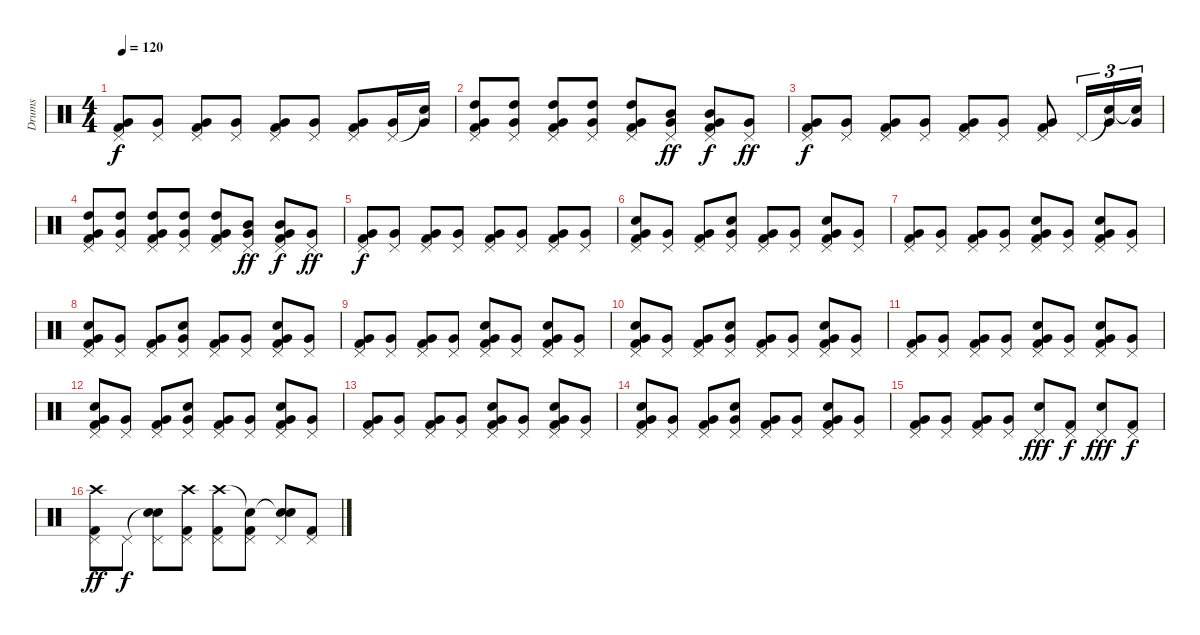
\track ("Drums" "Drums") {instrument percussion}
\staff {score}
\articulation defaults
\ts (4 4)
\tempo 120
\clef neutral
\ks c
("Pedal Hi-Hat (hit)" "Very Low Tom (hit)" "Kick (hit) 2").8{dy f} ("Pedal Hi-Hat (hit)" "Very Low Tom (hit)").8 ("Pedal Hi-Hat (hit)" "Very Low Tom (hit)" "Kick (hit) 2").8 ("Pedal Hi-Hat (hit)" "Very Low Tom (hit)").8 ("Pedal Hi-Hat (hit)" "Very Low Tom (hit)" "Kick (hit) 2").8 ("Pedal Hi-Hat (hit)" "Very Low Tom (hit)").8 ("Pedal Hi-Hat (hit)" "Very Low Tom (hit)" "Kick (hit) 2").8 ("Pedal Hi-Hat (hit)" "Very Low Tom (hit)").16 ("Snare (hit)"{t} "Very Low Tom (hit)").16 |
("Pedal Hi-Hat (hit)" "High Tom (hit)" "Very Low Tom (hit)" "Kick (hit) 2").8 ("Pedal Hi-Hat (hit)" "High Tom (hit)" "Very Low Tom (hit)").8 ("Pedal Hi-Hat (hit)" "High Tom (hit)" "Very Low Tom (hit)" "Kick (hit) 2").8 ("Pedal Hi-Hat (hit)" "High Tom (hit)" "Very Low Tom (hit)").8 ("Pedal Hi-Hat (hit)" "High Tom (hit)" "Very Low Tom (hit)" "Kick (hit) 2").8 ("Pedal Hi-Hat (hit)" "Mid Tom (hit)" "Very Low Tom (hit)").8{dy ff} ("Pedal Hi-Hat (hit)" "Mid Tom (hit)" "Very Low Tom (hit)" "Kick (hit) 2").8{dy f} ("Pedal Hi-Hat (hit)" "Very Low Tom (hit)").8{dy ff} |
("Pedal Hi-Hat (hit)" "Very Low Tom (hit)" "Kick (hit) 2").8{dy f} ("Pedal Hi-Hat (hit)" "Very Low Tom (hit)").8 ("Pedal Hi-Hat (hit)" "Very Low Tom (hit)" "Kick (hit) 2").8 ("Pedal Hi-Hat (hit)" "Very Low Tom (hit)").8 ("Pedal Hi-Hat (hit)" "Very Low Tom (hit)" "Kick (hit) 2").8 ("Pedal Hi-Hat (hit)" "Very Low Tom (hit)").8 ("Pedal Hi-Hat (hit)" "Very Low Tom (hit)" "Kick (hit) 2").8 "Pedal Hi-Hat (hit)".16{tu (3 2)} ("Snare (hit)"{t} "Very Low Tom (hit)").16{tu (3 2)} ("Snare (hit)"{t} "Very Low Tom (hit)").16{tu (3 2)} |
("Pedal Hi-Hat (hit)" "High Tom (hit)" "Very Low Tom (hit)" "Kick (hit) 2").8 ("Pedal Hi-Hat (hit)" "High Tom (hit)" "Very Low Tom (hit)").8 ("Pedal Hi-Hat (hit)" "High Tom (hit)" "Very Low Tom (hit)" "Kick (hit) 2").8 ("Pedal Hi-Hat (hit)" "High Tom (hit)" "Very Low Tom (hit)").8 ("Pedal Hi-Hat (hit)" "High Tom (hit)" "Very Low Tom (hit)" "Kick (hit) 2").8 ("Pedal Hi-Hat (hit)" "Mid Tom (hit)" "Very Low Tom (hit)").8{dy ff} ("Pedal Hi-Hat (hit)" "Mid Tom (hit)" "Very Low Tom (hit)" "Kick (hit) 2").8{dy f} ("Pedal Hi-Hat (hit)" "Very Low Tom (hit)").8{dy ff} |
("Pedal Hi-Hat (hit)" "Very Low Tom (hit)" "Kick (hit) 2").8{dy f} ("Pedal Hi-Hat (hit)" "Very Low Tom (hit)").8 ("Pedal Hi-Hat (hit)" "Very Low Tom (hit)" "Kick (hit) 2").8 ("Pedal Hi-Hat (hit)" "Very Low Tom (hit)").8 ("Pedal Hi-Hat (hit)" "Very Low Tom (hit)" "Kick (hit) 2").8 ("Pedal Hi-Hat (hit)" "Very Low Tom (hit)").8 ("Pedal Hi-Hat (hit)" "Very Low Tom (hit)" "Kick (hit) 2").8 ("Pedal Hi-Hat (hit)" "Very Low Tom (hit)").8 |
("Pedal Hi-Hat (hit)" "Electric Snare (hit)" "Very Low Tom (hit)" "Kick (hit) 2").8 ("Pedal Hi-Hat (hit)" "Very Low Tom (hit)").8 ("Pedal Hi-Hat (hit)" "Very Low Tom (hit)" "Kick (hit) 2").8 ("Pedal Hi-Hat (hit)" "Electric Snare (hit)" "Very Low Tom (hit)").8 ("Pedal Hi-Hat (hit)" "Very Low Tom (hit)" "Kick (hit) 2").8 ("Pedal Hi-Hat (hit)" "Very Low Tom (hit)").8 ("Pedal Hi-Hat (hit)" "Electric Snare (hit)" "Very Low Tom (hit)" "Kick (hit) 2").8 ("Pedal Hi-Hat (hit)" "Very Low Tom (hit)").8 |
("Pedal Hi-Hat (hit)" "Very Low Tom (hit)" "Kick (hit) 2").8 ("Pedal Hi-Hat (hit)" "Very Low Tom (hit)").8 ("Pedal Hi-Hat (hit)" "Very Low Tom (hit)" "Kick (hit) 2").8 ("Pedal Hi-Hat (hit)" "Very Low Tom (hit)").8 ("Pedal Hi-Hat (hit)" "Electric Snare (hit)" "Very Low Tom (hit)" "Kick (hit) 2").8 ("Pedal Hi-Hat (hit)" "Very Low Tom (hit)").8 ("Pedal Hi-Hat (hit)" "Electric Snare (hit)" "Very Low Tom (hit)" "Kick (hit) 2").8 ("Pedal Hi-Hat (hit)" "Very Low Tom (hit)").8 |
("Pedal Hi-Hat (hit)" "Electric Snare (hit)" "Very Low Tom (hit)" "Kick (hit) 2").8 ("Pedal Hi-Hat (hit)" "Very Low Tom (hit)").8 ("Pedal Hi-Hat (hit)" "Very Low Tom (hit)" "Kick (hit) 2").8 ("Pedal Hi-Hat (hit)" "Electric Snare (hit)" "Very Low Tom (hit)").8 ("Pedal Hi-Hat (hit)" "Very Low Tom (hit)" "Kick (hit) 2").8 ("Pedal Hi-Hat (hit)" "Very Low Tom (hit)").8 ("Pedal Hi-Hat (hit)" "Electric Snare (hit)" "Very Low Tom (hit)" "Kick (hit) 2").8 ("Pedal Hi-Hat (hit)" "Very Low Tom (hit)").8 |
("Pedal Hi-Hat (hit)" "Very Low Tom (hit)" "Kick (hit) 2").8 ("Pedal Hi-Hat (hit)" "Very Low Tom (hit)").8 ("Pedal Hi-Hat (hit)" "Very Low Tom (hit)" "Kick (hit) 2").8 ("Pedal Hi-Hat (hit)" "Very Low Tom (hit)").8 ("Pedal Hi-Hat (hit)" "Electric Snare (hit)" "Very Low Tom (hit)" "Kick (hit) 2").8 ("Pedal Hi-Hat (hit)" "Very Low Tom (hit)").8 ("Pedal Hi-Hat (hit)" "Electric Snare (hit)" "Very Low Tom (hit)" "Kick (hit) 2").8 ("Pedal Hi-Hat (hit)" "Very Low Tom (hit)").8 |
("Pedal Hi-Hat (hit)" "Electric Snare (hit)" "Very Low Tom (hit)" "Kick (hit) 2").8 ("Pedal Hi-Hat (hit)" "Very Low Tom (hit)").8 ("Pedal Hi-Hat (hit)" "Very Low Tom (hit)" "Kick (hit) 2").8 ("Pedal Hi-Hat (hit)" "Electric Snare (hit)" "Very Low Tom (hit)").8 ("Pedal Hi-Hat (hit)" "Very Low Tom (hit)" "Kick (hit) 2").8 ("Pedal Hi-Hat (hit)" "Very Low Tom (hit)").8 ("Pedal Hi-Hat (hit)" "Electric Snare (hit)" "Very Low Tom (hit)" "Kick (hit) 2").8 ("Pedal Hi-Hat (hit)" "Very Low Tom (hit)").8 |
("Pedal Hi-Hat (hit)" "Very Low Tom (hit)" "Kick (hit) 2").8 ("Pedal Hi-Hat (hit)" "Very Low Tom (hit)").8 ("Pedal Hi-Hat (hit)" "Very Low Tom (hit)" "Kick (hit) 2").8 ("Pedal Hi-Hat (hit)" "Very Low Tom (hit)").8 ("Pedal Hi-Hat (hit)" "Electric Snare (hit)" "Very Low Tom (hit)" "Kick (hit) 2").8 ("Pedal Hi-Hat (hit)" "Very Low Tom (hit)").8 ("Pedal Hi-Hat (hit)" "Electric Snare (hit)" "Very Low Tom (hit)" "Kick (hit) 2").8 ("Pedal Hi-Hat (hit)" "Very Low Tom (hit)").8 |
("Pedal Hi-Hat (hit)" "Electric Snare (hit)" "Very Low Tom (hit)" "Kick (hit) 2").8 ("Pedal Hi-Hat (hit)" "Very Low Tom (hit)").8 ("Pedal Hi-Hat (hit)" "Very Low Tom (hit)" "Kick (hit) 2").8 ("Pedal Hi-Hat (hit)" "Electric Snare (hit)" "Very Low Tom (hit)").8 ("Pedal Hi-Hat (hit)" "Very Low Tom (hit)" "Kick (hit) 2").8 ("Pedal Hi-Hat (hit)" "Very Low Tom (hit)").8 ("Pedal Hi-Hat (hit)" "Electric Snare (hit)" "Very Low Tom (hit)" "Kick (hit) 2").8 ("Pedal Hi-Hat (hit)" "Very Low Tom (hit)").8 |
("Pedal Hi-Hat (hit)" "Very Low Tom (hit)" "Kick (hit) 2").8 ("Pedal Hi-Hat (hit)" "Very Low Tom (hit)").8 ("Pedal Hi-Hat (hit)" "Very Low Tom (hit)" "Kick (hit) 2").8 ("Pedal Hi-Hat (hit)" "Very Low Tom (hit)").8 ("Pedal Hi-Hat (hit)" "Electric Snare (hit)" "Very Low Tom (hit)" "Kick (hit) 2").8 ("Pedal Hi-Hat (hit)" "Very Low Tom (hit)").8 ("Pedal Hi-Hat (hit)" "Electric Snare (hit)" "Very Low Tom (hit)" "Kick (hit) 2").8 ("Pedal Hi-Hat (hit)" "Very Low Tom (hit)").8 |
("Pedal Hi-Hat (hit)" "Electric Snare (hit)" "Very Low Tom (hit)" "Kick (hit) 2").8 ("Pedal Hi-Hat (hit)" "Very Low Tom (hit)").8 ("Pedal Hi-Hat (hit)" "Very Low Tom (hit)" "Kick (hit) 2").8 ("Pedal Hi-Hat (hit)" "Electric Snare (hit)" "Very Low Tom (hit)").8 ("Pedal Hi-Hat (hit)" "Very Low Tom (hit)" "Kick (hit) 2").8 ("Pedal Hi-Hat (hit)" "Very Low Tom (hit)").8 ("Pedal Hi-Hat (hit)" "Electric Snare (hit)" "Very Low Tom (hit)" "Kick (hit) 2").8 ("Pedal Hi-Hat (hit)" "Very Low Tom (hit)").8 |
("Pedal Hi-Hat (hit)" "Very Low Tom (hit)" "Kick (hit) 2").8 ("Pedal Hi-Hat (hit)" "Very Low Tom (hit)").8 ("Pedal Hi-Hat (hit)" "Very Low Tom (hit)" "Kick (hit) 2").8 ("Pedal Hi-Hat (hit)" "Very Low Tom (hit)").8 ("Pedal Hi-Hat (hit)" "Electric Snare (hit)").8{dy fff} ("Pedal Hi-Hat (hit)" "Kick (hit) 2").8{dy f} ("Pedal Hi-Hat (hit)" "Electric Snare (hit)").8{dy fff} ("Pedal Hi-Hat (hit)" "Kick (hit) 2").8{dy f} |
("Crash high (hit)" "Pedal Hi-Hat (hit)" "Kick (hit) 2").8{dy ff} "Pedal Hi-Hat (hit)".8{dy f} ("Snare (hit)"{t} "Pedal Hi-Hat (hit)" "Electric Snare (hit)").8 ("Crash high (hit)" "Pedal Hi-Hat (hit)" "Kick (hit) 2").8 ("Crash high (hit)" "Pedal Hi-Hat (hit)" "Kick (hit) 2").8 ("Snare (hit)"{t} "Pedal Hi-Hat (hit)" "Kick (hit) 2").8 ("Snare (hit)"{t} "Pedal Hi-Hat (hit)" "Electric Snare (hit)").8 ("Pedal Hi-Hat (hit)" "Kick (hit) 2").8
